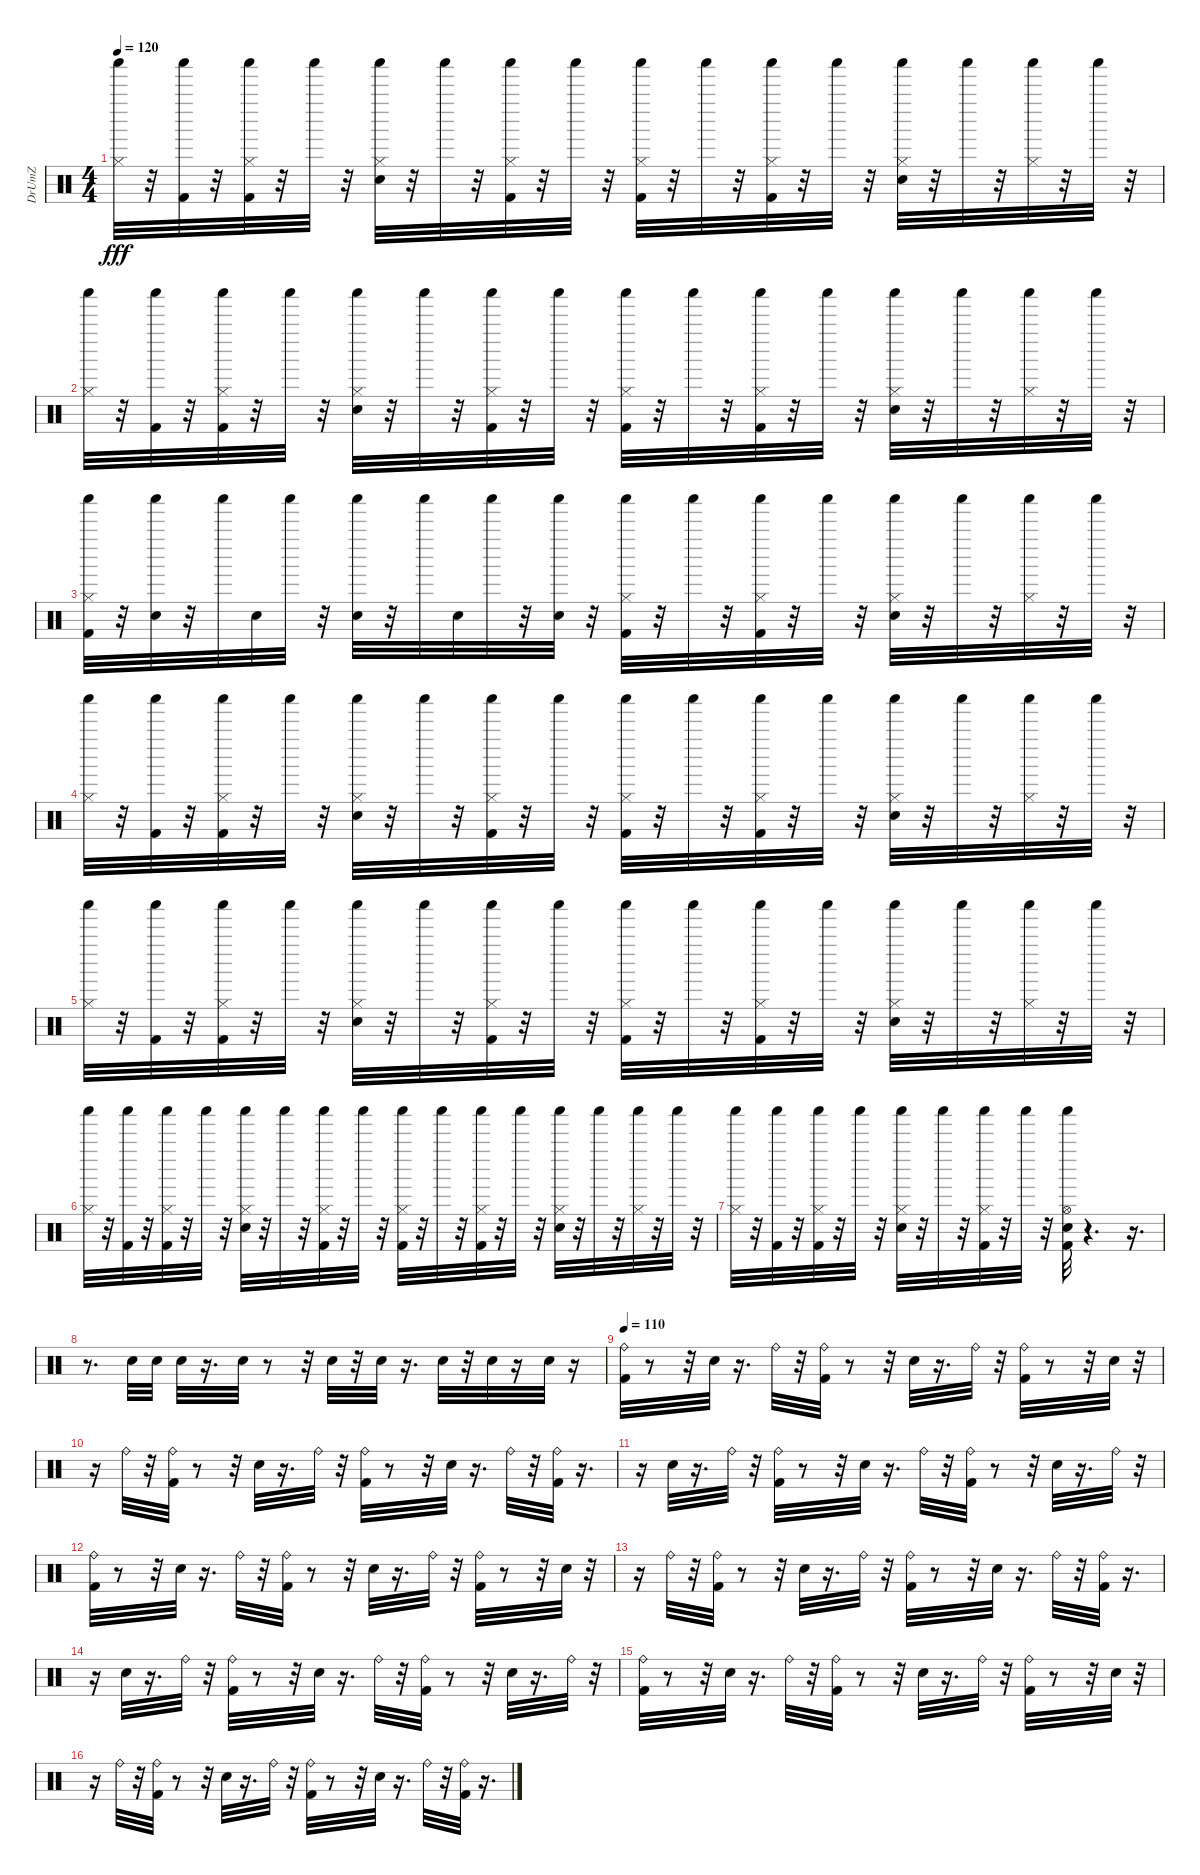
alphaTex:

\track ("DrUmZ" "DrUmZ") {instrument percussion}
\staff {score}
\articulation defaults
\ts (4 4)
\tempo 120
\clef neutral
\ks c
("Shaker (hit)" "Hi-Hat (closed)").32{dy fff} r.32 ("Shaker (hit)" "Kick (hit) 2").32 r.32 ("Shaker (hit)" "Kick (hit) 2" "Hi-Hat (closed)").32 r.32 "Shaker (hit)".32 r.32 ("Shaker (hit)" "Electric Snare (hit)" "Hi-Hat (closed)").32 r.32 "Shaker (hit)".32 r.32 ("Shaker (hit)" "Kick (hit) 2" "Hi-Hat (closed)").32 r.32 "Shaker (hit)".32 r.32 ("Hi-Hat (closed)" "Kick (hit) 2" "Shaker (hit)").32 r.32 "Shaker (hit)".32 r.32 ("Shaker (hit)" "Kick (hit) 2" "Hi-Hat (closed)").32 r.32 "Shaker (hit)".32 r.32 ("Shaker (hit)" "Electric Snare (hit)" "Hi-Hat (closed)").32 r.32 "Shaker (hit)".32 r.32 ("Shaker (hit)" "Hi-Hat (closed)").32 r.32 "Shaker (hit)".32 r.32 |
("Shaker (hit)" "Hi-Hat (closed)").32 r.32 ("Shaker (hit)" "Kick (hit) 2").32 r.32 ("Shaker (hit)" "Kick (hit) 2" "Hi-Hat (closed)").32 r.32 "Shaker (hit)".32 r.32 ("Shaker (hit)" "Electric Snare (hit)" "Hi-Hat (closed)").32 r.32 "Shaker (hit)".32 r.32 ("Shaker (hit)" "Kick (hit) 2" "Hi-Hat (closed)").32 r.32 "Shaker (hit)".32 r.32 ("Hi-Hat (closed)" "Kick (hit) 2" "Shaker (hit)").32 r.32 "Shaker (hit)".32 r.32 ("Shaker (hit)" "Kick (hit) 2" "Hi-Hat (closed)").32 r.32 "Shaker (hit)".32 r.32 ("Shaker (hit)" "Electric Snare (hit)" "Hi-Hat (closed)").32 r.32 "Shaker (hit)".32 r.32 ("Shaker (hit)" "Hi-Hat (closed)").32 r.32 "Shaker (hit)".32 r.32 |
("Hi-Hat (closed)" "Shaker (hit)" "Kick (hit) 2").32 r.32 ("Shaker (hit)" "Electric Snare (hit)").32 r.32 "Shaker (hit)".32 "Electric Snare (hit)".32 "Shaker (hit)".32 r.32 ("Shaker (hit)" "Electric Snare (hit)").32 r.32 "Shaker (hit)".32 "Electric Snare (hit)".32 "Shaker (hit)".32 r.32 ("Shaker (hit)" "Electric Snare (hit)").32 r.32 ("Shaker (hit)" "Hi-Hat (closed)" "Kick (hit) 2").32 r.32 "Shaker (hit)".32 r.32 ("Shaker (hit)" "Kick (hit) 2" "Hi-Hat (closed)").32 r.32 "Shaker (hit)".32 r.32 ("Shaker (hit)" "Electric Snare (hit)" "Hi-Hat (closed)").32 r.32 "Shaker (hit)".32 r.32 ("Shaker (hit)" "Hi-Hat (closed)").32 r.32 "Shaker (hit)".32 r.32 |
("Shaker (hit)" "Hi-Hat (closed)").32 r.32 ("Shaker (hit)" "Kick (hit) 2").32 r.32 ("Shaker (hit)" "Kick (hit) 2" "Hi-Hat (closed)").32 r.32 "Shaker (hit)".32 r.32 ("Shaker (hit)" "Electric Snare (hit)" "Hi-Hat (closed)").32 r.32 "Shaker (hit)".32 r.32 ("Shaker (hit)" "Kick (hit) 2" "Hi-Hat (closed)").32 r.32 "Shaker (hit)".32 r.32 ("Kick (hit) 2" "Hi-Hat (closed)" "Shaker (hit)").32 r.32 "Shaker (hit)".32 r.32 ("Shaker (hit)" "Kick (hit) 2" "Hi-Hat (closed)").32 r.32 "Shaker (hit)".32 r.32 ("Shaker (hit)" "Electric Snare (hit)" "Hi-Hat (closed)").32 r.32 "Shaker (hit)".32 r.32 ("Shaker (hit)" "Hi-Hat (closed)").32 r.32 "Shaker (hit)".32 r.32 |
("Shaker (hit)" "Hi-Hat (closed)").32 r.32 ("Shaker (hit)" "Kick (hit) 2").32 r.32 ("Shaker (hit)" "Kick (hit) 2" "Hi-Hat (closed)").32 r.32 "Shaker (hit)".32 r.32 ("Shaker (hit)" "Electric Snare (hit)" "Hi-Hat (closed)").32 r.32 "Shaker (hit)".32 r.32 ("Shaker (hit)" "Kick (hit) 2" "Hi-Hat (closed)").32 r.32 "Shaker (hit)".32 r.32 ("Kick (hit) 2" "Hi-Hat (closed)" "Shaker (hit)").32 r.32 "Shaker (hit)".32 r.32 ("Shaker (hit)" "Kick (hit) 2" "Hi-Hat (closed)").32 r.32 "Shaker (hit)".32 r.32 ("Shaker (hit)" "Electric Snare (hit)" "Hi-Hat (closed)").32 r.32 "Shaker (hit)".32 r.32 ("Shaker (hit)" "Hi-Hat (closed)").32 r.32 "Shaker (hit)".32 r.32 |
("Shaker (hit)" "Hi-Hat (closed)").32 r.32 ("Shaker (hit)" "Kick (hit) 2").32 r.32 ("Shaker (hit)" "Kick (hit) 2" "Hi-Hat (closed)").32 r.32 "Shaker (hit)".32 r.32 ("Shaker (hit)" "Electric Snare (hit)" "Hi-Hat (closed)").32 r.32 "Shaker (hit)".32 r.32 ("Shaker (hit)" "Kick (hit) 2" "Hi-Hat (closed)").32 r.32 "Shaker (hit)".32 r.32 ("Kick (hit) 2" "Hi-Hat (closed)" "Shaker (hit)").32 r.32 "Shaker (hit)".32 r.32 ("Shaker (hit)" "Kick (hit) 2" "Hi-Hat (closed)").32 r.32 "Shaker (hit)".32 r.32 ("Shaker (hit)" "Electric Snare (hit)" "Hi-Hat (closed)").32 r.32 "Shaker (hit)".32 r.32 ("Shaker (hit)" "Hi-Hat (closed)").32 r.32 "Shaker (hit)".32 r.32 |
("Shaker (hit)" "Hi-Hat (closed)").32 r.32 ("Shaker (hit)" "Kick (hit) 2").32 r.32 ("Shaker (hit)" "Kick (hit) 2" "Hi-Hat (closed)").32 r.32 "Shaker (hit)".32 r.32 ("Shaker (hit)" "Electric Snare (hit)" "Hi-Hat (closed)").32 r.32 "Shaker (hit)".32 r.32 ("Shaker (hit)" "Kick (hit) 2" "Hi-Hat (closed)").32 r.32 "Shaker (hit)".32 r.32 ("Kick (hit) 2" "Shaker (hit)" "Hi-Hat (open)" "Electric Snare (hit)").32 r.4{d} r.16{d} |
r.8{d} "Electric Snare (hit)".32 "Electric Snare (hit)".32 "Electric Snare (hit)".32 r.16{d} "Electric Snare (hit)".32 r.8 r.32 "Electric Snare (hit)".32 r.32 "Electric Snare (hit)".32 r.16{d} "Snare (hit) 2".32 r.32 "Electric Snare (hit)".32 r.16 "Electric Snare (hit)".32 r.16 |
\tempo 110
("Kick (hit) 2" "Ride (bell)").32 r.8 r.32 "Electric Snare (hit)".32 r.16{d} "Ride (bell)".32 r.32 ("Kick (hit) 2" "Ride (bell)").32 r.8 r.32 "Electric Snare (hit)".32 r.16{d} "Ride (bell)".32 r.32 ("Kick (hit) 2" "Ride (bell)").32 r.8 r.32 "Electric Snare (hit)".32 r.32 |
r.16 "Ride (bell)".32 r.32 ("Kick (hit) 2" "Ride (bell)").32 r.8 r.32 "Electric Snare (hit)".32 r.16{d} "Ride (bell)".32 r.32 ("Ride (bell)" "Kick (hit) 2").32 r.8 r.32 "Electric Snare (hit)".32 r.16{d} "Ride (bell)".32 r.32 ("Kick (hit) 2" "Ride (bell)").32 r.16{d} |
r.16 "Electric Snare (hit)".32 r.16{d} "Ride (bell)".32 r.32 ("Kick (hit) 2" "Ride (bell)").32 r.8 r.32 "Electric Snare (hit)".32 r.16{d} "Ride (bell)".32 r.32 ("Kick (hit) 2" "Ride (bell)").32 r.8 r.32 "Electric Snare (hit)".32 r.16{d} "Ride (bell)".32 r.32 |
("Ride (bell)" "Kick (hit) 2").32 r.8 r.32 "Electric Snare (hit)".32 r.16{d} "Ride (bell)".32 r.32 ("Kick (hit) 2" "Ride (bell)").32 r.8 r.32 "Electric Snare (hit)".32 r.16{d} "Ride (bell)".32 r.32 ("Kick (hit) 2" "Ride (bell)").32 r.8 r.32 "Electric Snare (hit)".32 r.32 |
r.16 "Ride (bell)".32 r.32 ("Kick (hit) 2" "Ride (bell)").32 r.8 r.32 "Electric Snare (hit)".32 r.16{d} "Ride (bell)".32 r.32 ("Ride (bell)" "Kick (hit) 2").32 r.8 r.32 "Electric Snare (hit)".32 r.16{d} "Ride (bell)".32 r.32 ("Kick (hit) 2" "Ride (bell)").32 r.16{d} |
r.16 "Electric Snare (hit)".32 r.16{d} "Ride (bell)".32 r.32 ("Kick (hit) 2" "Ride (bell)").32 r.8 r.32 "Electric Snare (hit)".32 r.16{d} "Ride (bell)".32 r.32 ("Kick (hit) 2" "Ride (bell)").32 r.8 r.32 "Electric Snare (hit)".32 r.16{d} "Ride (bell)".32 r.32 |
("Ride (bell)" "Kick (hit) 2").32 r.8 r.32 "Electric Snare (hit)".32 r.16{d} "Ride (bell)".32 r.32 ("Kick (hit) 2" "Ride (bell)").32 r.8 r.32 "Electric Snare (hit)".32 r.16{d} "Ride (bell)".32 r.32 ("Kick (hit) 2" "Ride (bell)").32 r.8 r.32 "Electric Snare (hit)".32 r.32 |
r.16 "Ride (bell)".32 r.32 ("Kick (hit) 2" "Ride (bell)").32 r.8 r.32 "Electric Snare (hit)".32 r.16{d} "Ride (bell)".32 r.32 ("Ride (bell)" "Kick (hit) 2").32 r.8 r.32 "Electric Snare (hit)".32 r.16{d} "Ride (bell)".32 r.32 ("Kick (hit) 2" "Ride (bell)").32 r.16{d}
